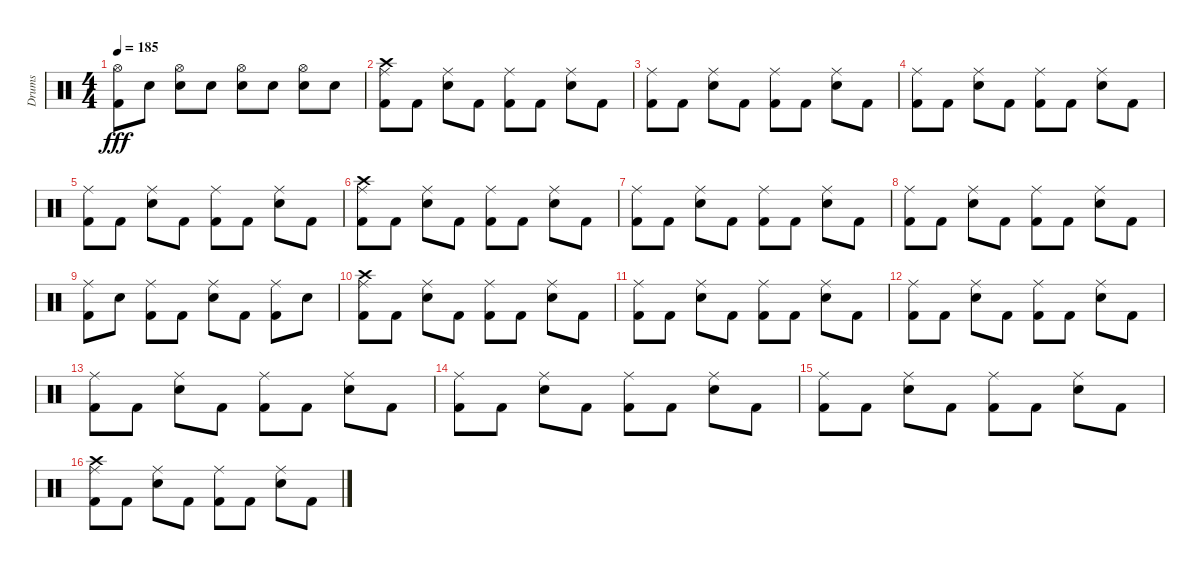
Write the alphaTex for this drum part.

\track ("Drums" "Drums") {instrument percussion}
\staff {score}
\articulation defaults
\ts (4 4)
\tempo 185
\clef neutral
\ks c
("Kick (hit) 2" "Hi-Hat (open)").8{dy fff} "Snare (hit) 2".8 ("Snare (hit) 2" "Hi-Hat (open)").8 "Snare (hit) 2".8 ("Snare (hit) 2" "Hi-Hat (open)").8 "Snare (hit) 2".8 ("Snare (hit) 2" "Hi-Hat (open)").8 "Snare (hit) 2".8 |
("Kick (hit) 2" "Crash high (hit)" "Ride (middle)").8 "Kick (hit) 2".8 ("Snare (hit) 2" "Ride (middle)").8 "Kick (hit) 2".8 ("Kick (hit) 2" "Ride (middle)").8 "Kick (hit) 2".8 ("Snare (hit) 2" "Ride (middle)").8 "Kick (hit) 2".8 |
("Kick (hit) 2" "Ride (middle)").8 "Kick (hit) 2".8 ("Snare (hit) 2" "Ride (middle)").8 "Kick (hit) 2".8 ("Kick (hit) 2" "Ride (middle)").8 "Kick (hit) 2".8 ("Snare (hit) 2" "Ride (middle)").8 "Kick (hit) 2".8 |
("Kick (hit) 2" "Ride (middle)").8 "Kick (hit) 2".8 ("Snare (hit) 2" "Ride (middle)").8 "Kick (hit) 2".8 ("Kick (hit) 2" "Ride (middle)").8 "Kick (hit) 2".8 ("Snare (hit) 2" "Ride (middle)").8 "Kick (hit) 2".8 |
("Kick (hit) 2" "Ride (middle)").8 "Kick (hit) 2".8 ("Snare (hit) 2" "Ride (middle)").8 "Kick (hit) 2".8 ("Kick (hit) 2" "Ride (middle)").8 "Kick (hit) 2".8 ("Snare (hit) 2" "Ride (middle)").8 "Kick (hit) 2".8 |
("Kick (hit) 2" "Crash high (hit)" "Ride (middle)").8 "Kick (hit) 2".8 ("Snare (hit) 2" "Ride (middle)").8 "Kick (hit) 2".8 ("Kick (hit) 2" "Ride (middle)").8 "Kick (hit) 2".8 ("Snare (hit) 2" "Ride (middle)").8 "Kick (hit) 2".8 |
("Kick (hit) 2" "Ride (middle)").8 "Kick (hit) 2".8 ("Snare (hit) 2" "Ride (middle)").8 "Kick (hit) 2".8 ("Kick (hit) 2" "Ride (middle)").8 "Kick (hit) 2".8 ("Snare (hit) 2" "Ride (middle)").8 "Kick (hit) 2".8 |
("Kick (hit) 2" "Ride (middle)").8 "Kick (hit) 2".8 ("Snare (hit) 2" "Ride (middle)").8 "Kick (hit) 2".8 ("Kick (hit) 2" "Ride (middle)").8 "Kick (hit) 2".8 ("Snare (hit) 2" "Ride (middle)").8 "Kick (hit) 2".8 |
("Kick (hit) 2" "Ride (middle)").8 "Snare (hit) 2".8 ("Kick (hit) 2" "Ride (middle)").8 "Kick (hit) 2".8 ("Snare (hit) 2" "Ride (middle)").8 "Kick (hit) 2".8 ("Kick (hit) 2" "Ride (middle)").8 "Snare (hit) 2".8 |
("Kick (hit) 2" "Crash high (hit)" "Ride (middle)").8 "Kick (hit) 2".8 ("Snare (hit) 2" "Ride (middle)").8 "Kick (hit) 2".8 ("Kick (hit) 2" "Ride (middle)").8 "Kick (hit) 2".8 ("Snare (hit) 2" "Ride (middle)").8 "Kick (hit) 2".8 |
("Kick (hit) 2" "Ride (middle)").8 "Kick (hit) 2".8 ("Snare (hit) 2" "Ride (middle)").8 "Kick (hit) 2".8 ("Kick (hit) 2" "Ride (middle)").8 "Kick (hit) 2".8 ("Snare (hit) 2" "Ride (middle)").8 "Kick (hit) 2".8 |
("Kick (hit) 2" "Ride (middle)").8 "Kick (hit) 2".8 ("Snare (hit) 2" "Ride (middle)").8 "Kick (hit) 2".8 ("Kick (hit) 2" "Ride (middle)").8 "Kick (hit) 2".8 ("Snare (hit) 2" "Ride (middle)").8 "Kick (hit) 2".8 |
("Kick (hit) 2" "Ride (middle)").8 "Kick (hit) 2".8 ("Snare (hit) 2" "Ride (middle)").8 "Kick (hit) 2".8 ("Kick (hit) 2" "Ride (middle)").8 "Kick (hit) 2".8 ("Snare (hit) 2" "Ride (middle)").8 "Kick (hit) 2".8 |
("Kick (hit) 2" "Ride (middle)").8 "Kick (hit) 2".8 ("Snare (hit) 2" "Ride (middle)").8 "Kick (hit) 2".8 ("Kick (hit) 2" "Ride (middle)").8 "Kick (hit) 2".8 ("Snare (hit) 2" "Ride (middle)").8 "Kick (hit) 2".8 |
("Kick (hit) 2" "Ride (middle)").8 "Kick (hit) 2".8 ("Snare (hit) 2" "Ride (middle)").8 "Kick (hit) 2".8 ("Kick (hit) 2" "Ride (middle)").8 "Kick (hit) 2".8 ("Snare (hit) 2" "Ride (middle)").8 "Kick (hit) 2".8 |
("Kick (hit) 2" "Crash high (hit)" "Ride (middle)").8 "Kick (hit) 2".8 ("Snare (hit) 2" "Ride (middle)").8 "Kick (hit) 2".8 ("Kick (hit) 2" "Ride (middle)").8 "Kick (hit) 2".8 ("Snare (hit) 2" "Ride (middle)").8 "Kick (hit) 2".8
